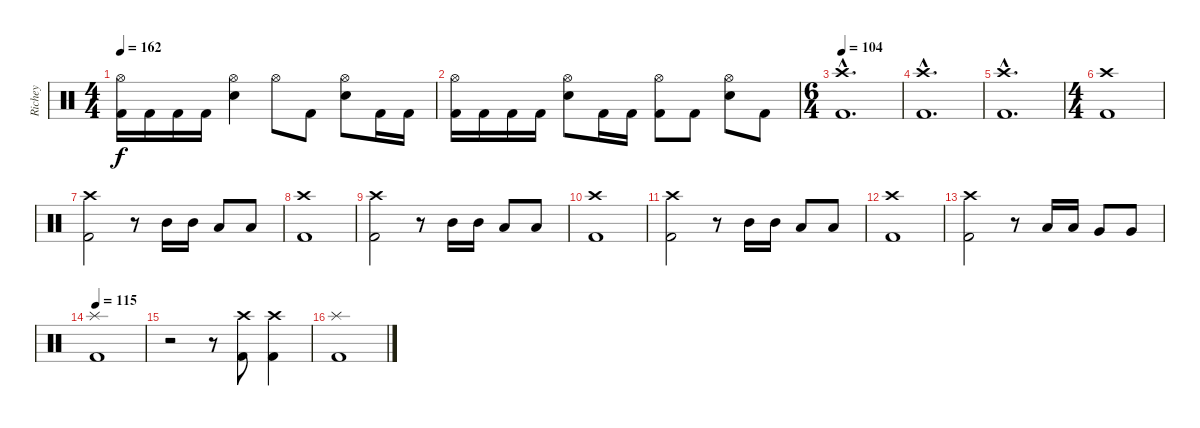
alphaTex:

\track ("Richey" "Richey") {instrument percussion}
\staff {score}
\articulation defaults
\ts (4 4)
\tempo 162
\clef neutral
\ks c
("Hi-Hat (open)" "Kick (hit) 2").16{dy f} "Kick (hit) 2".16 "Kick (hit) 2".16 "Kick (hit) 2".16 ("Hi-Hat (open)" "Snare (hit) 2").4 "Hi-Hat (open)".8 "Kick (hit) 2".8 ("Hi-Hat (open)" "Snare (hit) 2").8 "Kick (hit) 2".16 "Kick (hit) 2".16 |
("Hi-Hat (open)" "Kick (hit) 2").16 "Kick (hit) 2".16 "Kick (hit) 2".16 "Kick (hit) 2".16 ("Hi-Hat (open)" "Snare (hit) 2").8 "Kick (hit) 2".16 "Kick (hit) 2".16 ("Hi-Hat (open)" "Kick (hit) 2").8 "Kick (hit) 2".8 ("Hi-Hat (open)" "Snare (hit) 2").8 "Kick (hit) 2".8 |
\ts (6 4)
\tempo 104
("Crash high (hit)"{hac} "Kick (hit) 2"{hac}).1{d} |
("Crash high (hit)"{hac} "Kick (hit) 2"{hac}).1{d} |
("Crash high (hit)"{hac} "Kick (hit) 2"{hac}).1{d} |
\ts (4 4)
("Crash high (hit)" "Kick (hit) 2").1 |
("Crash high (hit)" "Kick (hit) 2").2 r.8 "Mid Tom (hit)".16 "Mid Tom (hit)".16 "Low Tom (hit)".8 "Low Tom (hit)".8 |
("Crash high (hit)" "Kick (hit) 2").1 |
("Crash high (hit)" "Kick (hit) 2").2 r.8 "Mid Tom (hit)".16 "Mid Tom (hit)".16 "Low Tom (hit)".8 "Low Tom (hit)".8 |
("Crash high (hit)" "Kick (hit) 2").1 |
("Crash high (hit)" "Kick (hit) 2").2 r.8 "Mid Tom (hit)".16 "Mid Tom (hit)".16 "Low Tom (hit)".8 "Low Tom (hit)".8 |
("Crash high (hit)" "Kick (hit) 2").1 |
("Crash high (hit)" "Kick (hit) 2").2 r.8 "Low Tom (hit)".16 "Low Tom (hit)".16 "Very Low Tom (hit)".8 "Very Low Tom (hit)".8 |
\tempo 115
("Splash (hit)" "Kick (hit) 2").1 |
r.2 r.8 ("Crash high (hit)" "Kick (hit) 2").8 ("Crash high (hit)" "Kick (hit) 2").4 |
("Splash (hit)" "Kick (hit) 2").1
